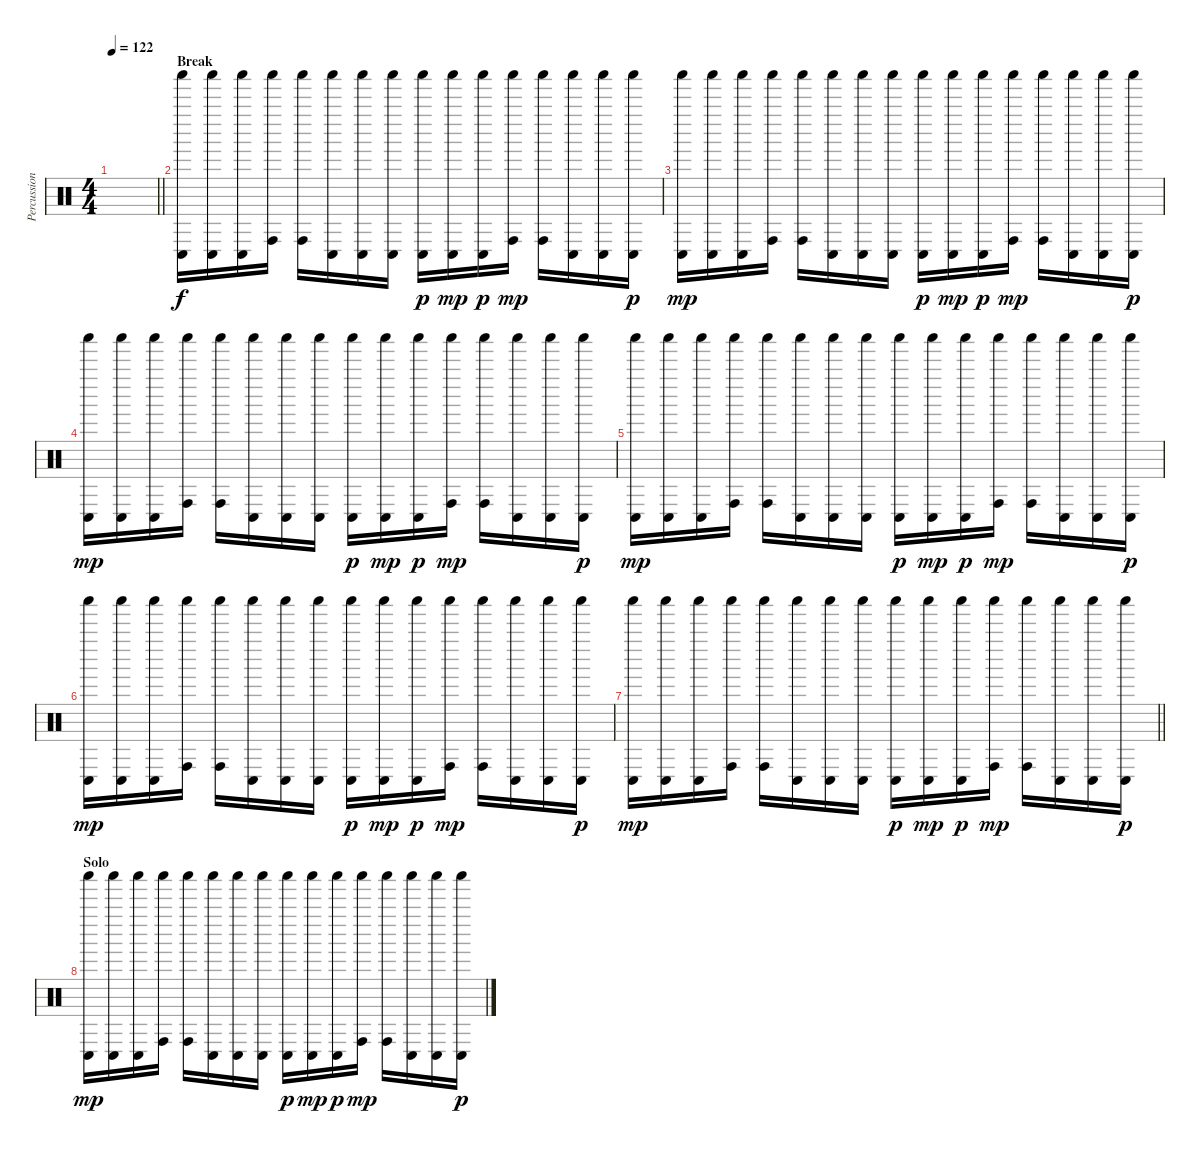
\track ("Percussion" "Percussion") {instrument percussion}
\staff {score}
\articulation defaults
\ts (4 4)
\tempo 122
\clef neutral
\barLineRight lightlight
\ks c
|
\section ("" "Break")
("Shaker (hit)" "Conga low (hit)").16 ("Shaker (hit)" "Conga low (hit)").16 ("Shaker (hit)" "Conga low (hit)").16 ("Shaker (hit)" "Conga high (hit)").16 ("Shaker (hit)" "Conga high (hit)").16 ("Shaker (hit)" "Conga low (hit)").16 ("Shaker (hit)" "Conga low (hit)").16 ("Shaker (hit)" "Conga low (hit)").16 ("Shaker (hit)" "Conga low (hit)").16{dy p} ("Shaker (hit)" "Conga low (hit)").16{dy mp} ("Shaker (hit)" "Conga low (hit)").16{dy p} ("Shaker (hit)" "Conga high (hit)").16{dy mp} ("Shaker (hit)" "Conga high (hit)").16 ("Shaker (hit)" "Conga low (hit)").16 ("Shaker (hit)" "Conga low (hit)").16 ("Shaker (hit)" "Conga low (hit)").16{dy p} |
("Shaker (hit)" "Conga low (hit)").16{dy mp} ("Shaker (hit)" "Conga low (hit)").16 ("Shaker (hit)" "Conga low (hit)").16 ("Shaker (hit)" "Conga high (hit)").16 ("Shaker (hit)" "Conga high (hit)").16 ("Shaker (hit)" "Conga low (hit)").16 ("Shaker (hit)" "Conga low (hit)").16 ("Shaker (hit)" "Conga low (hit)").16 ("Shaker (hit)" "Conga low (hit)").16{dy p} ("Shaker (hit)" "Conga low (hit)").16{dy mp} ("Shaker (hit)" "Conga low (hit)").16{dy p} ("Shaker (hit)" "Conga high (hit)").16{dy mp} ("Shaker (hit)" "Conga high (hit)").16 ("Shaker (hit)" "Conga low (hit)").16 ("Shaker (hit)" "Conga low (hit)").16 ("Shaker (hit)" "Conga low (hit)").16{dy p} |
("Shaker (hit)" "Conga low (hit)").16{dy mp} ("Shaker (hit)" "Conga low (hit)").16 ("Shaker (hit)" "Conga low (hit)").16 ("Shaker (hit)" "Conga high (hit)").16 ("Shaker (hit)" "Conga high (hit)").16 ("Shaker (hit)" "Conga low (hit)").16 ("Shaker (hit)" "Conga low (hit)").16 ("Shaker (hit)" "Conga low (hit)").16 ("Shaker (hit)" "Conga low (hit)").16{dy p} ("Shaker (hit)" "Conga low (hit)").16{dy mp} ("Shaker (hit)" "Conga low (hit)").16{dy p} ("Shaker (hit)" "Conga high (hit)").16{dy mp} ("Shaker (hit)" "Conga high (hit)").16 ("Shaker (hit)" "Conga low (hit)").16 ("Shaker (hit)" "Conga low (hit)").16 ("Shaker (hit)" "Conga low (hit)").16{dy p} |
("Shaker (hit)" "Conga low (hit)").16{dy mp} ("Shaker (hit)" "Conga low (hit)").16 ("Shaker (hit)" "Conga low (hit)").16 ("Shaker (hit)" "Conga high (hit)").16 ("Shaker (hit)" "Conga high (hit)").16 ("Shaker (hit)" "Conga low (hit)").16 ("Shaker (hit)" "Conga low (hit)").16 ("Shaker (hit)" "Conga low (hit)").16 ("Shaker (hit)" "Conga low (hit)").16{dy p} ("Shaker (hit)" "Conga low (hit)").16{dy mp} ("Shaker (hit)" "Conga low (hit)").16{dy p} ("Shaker (hit)" "Conga high (hit)").16{dy mp} ("Shaker (hit)" "Conga high (hit)").16 ("Shaker (hit)" "Conga low (hit)").16 ("Shaker (hit)" "Conga low (hit)").16 ("Shaker (hit)" "Conga low (hit)").16{dy p} |
("Shaker (hit)" "Conga low (hit)").16{dy mp} ("Shaker (hit)" "Conga low (hit)").16 ("Shaker (hit)" "Conga low (hit)").16 ("Shaker (hit)" "Conga high (hit)").16 ("Shaker (hit)" "Conga high (hit)").16 ("Shaker (hit)" "Conga low (hit)").16 ("Shaker (hit)" "Conga low (hit)").16 ("Shaker (hit)" "Conga low (hit)").16 ("Shaker (hit)" "Conga low (hit)").16{dy p} ("Shaker (hit)" "Conga low (hit)").16{dy mp} ("Shaker (hit)" "Conga low (hit)").16{dy p} ("Shaker (hit)" "Conga high (hit)").16{dy mp} ("Shaker (hit)" "Conga high (hit)").16 ("Shaker (hit)" "Conga low (hit)").16 ("Shaker (hit)" "Conga low (hit)").16 ("Shaker (hit)" "Conga low (hit)").16{dy p} |
\barLineRight lightlight
("Shaker (hit)" "Conga low (hit)").16{dy mp} ("Shaker (hit)" "Conga low (hit)").16 ("Shaker (hit)" "Conga low (hit)").16 ("Shaker (hit)" "Conga high (hit)").16 ("Shaker (hit)" "Conga high (hit)").16 ("Shaker (hit)" "Conga low (hit)").16 ("Shaker (hit)" "Conga low (hit)").16 ("Shaker (hit)" "Conga low (hit)").16 ("Shaker (hit)" "Conga low (hit)").16{dy p} ("Shaker (hit)" "Conga low (hit)").16{dy mp} ("Shaker (hit)" "Conga low (hit)").16{dy p} ("Shaker (hit)" "Conga high (hit)").16{dy mp} ("Shaker (hit)" "Conga high (hit)").16 ("Shaker (hit)" "Conga low (hit)").16 ("Shaker (hit)" "Conga low (hit)").16 ("Shaker (hit)" "Conga low (hit)").16{dy p} |
\section ("" "Solo")
("Shaker (hit)" "Conga low (hit)").16{dy mp} ("Shaker (hit)" "Conga low (hit)").16 ("Shaker (hit)" "Conga low (hit)").16 ("Shaker (hit)" "Conga high (hit)").16 ("Shaker (hit)" "Conga high (hit)").16 ("Shaker (hit)" "Conga low (hit)").16 ("Shaker (hit)" "Conga low (hit)").16 ("Shaker (hit)" "Conga low (hit)").16 ("Shaker (hit)" "Conga low (hit)").16{dy p} ("Shaker (hit)" "Conga low (hit)").16{dy mp} ("Shaker (hit)" "Conga low (hit)").16{dy p} ("Shaker (hit)" "Conga high (hit)").16{dy mp} ("Shaker (hit)" "Conga high (hit)").16 ("Shaker (hit)" "Conga low (hit)").16 ("Shaker (hit)" "Conga low (hit)").16 ("Shaker (hit)" "Conga low (hit)").16{dy p}
